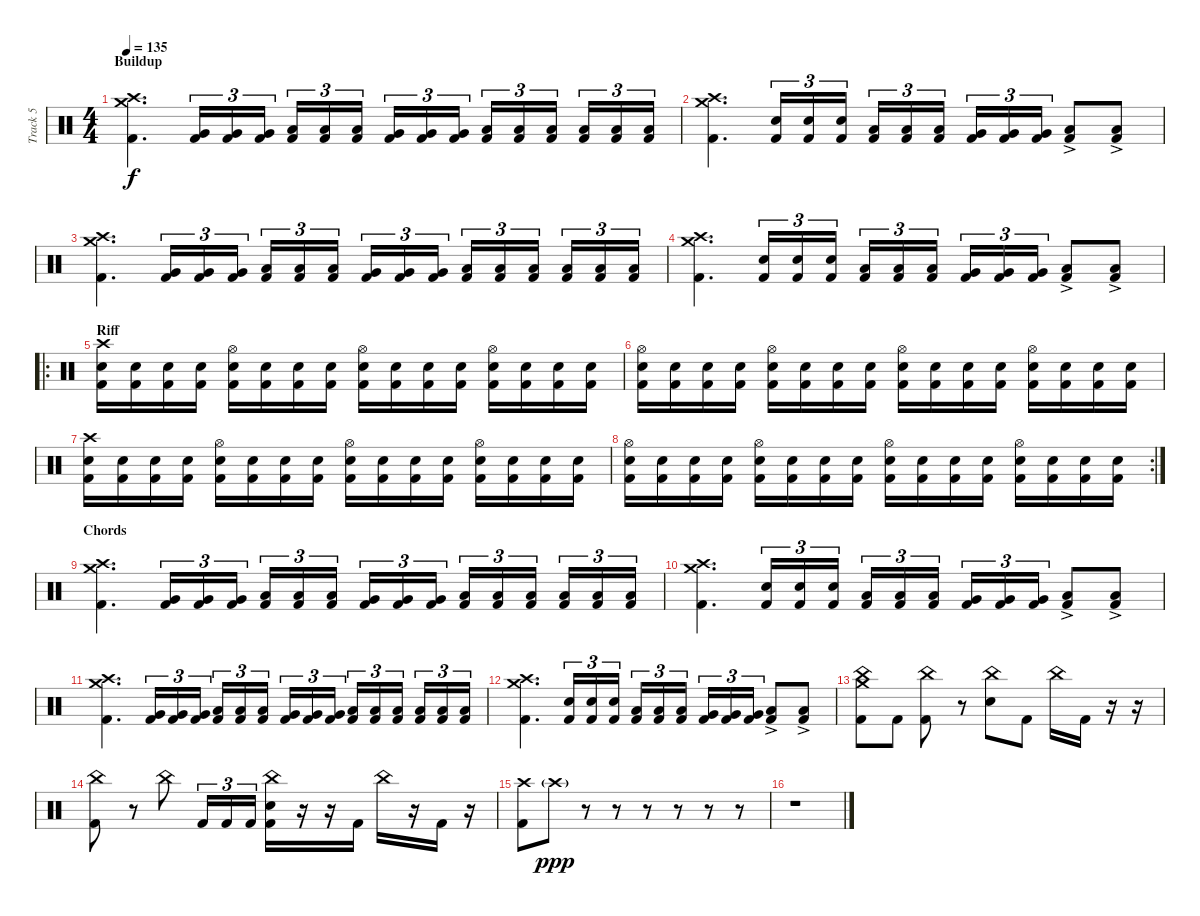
\track ("Track 5" "Track 5") {instrument percussion}
\staff {score}
\articulation defaults
\ts (4 4)
\section ("" "Buildup")
\tempo 135
\clef neutral
\ks c
("Crash medium (hit)" "Crash high (hit)" "Kick (hit) 2").4{d dy f} ("Very Low Tom (hit)" "Kick (hit) 2").16{tu (3 2)} ("Very Low Tom (hit)" "Kick (hit) 2").16{tu (3 2)} ("Very Low Tom (hit)" "Kick (hit) 2").16{tu (3 2)} ("Low Floor Tom (hit)" "Kick (hit) 2").16{tu (3 2)} ("Low Floor Tom (hit)" "Kick (hit) 2").16{tu (3 2)} ("Low Floor Tom (hit)" "Kick (hit) 2").16{tu (3 2)} ("Very Low Tom (hit)" "Kick (hit) 2").16{tu (3 2)} ("Very Low Tom (hit)" "Kick (hit) 2").16{tu (3 2)} ("Very Low Tom (hit)" "Kick (hit) 2").16{tu (3 2)} ("Low Floor Tom (hit)" "Kick (hit) 2").16{tu (3 2)} ("Low Floor Tom (hit)" "Kick (hit) 2").16{tu (3 2)} ("Low Floor Tom (hit)" "Kick (hit) 2").16{tu (3 2)} ("Low Floor Tom (hit)" "Kick (hit) 2").16{tu (3 2)} ("Low Floor Tom (hit)" "Kick (hit) 2").16{tu (3 2)} ("Low Floor Tom (hit)" "Kick (hit) 2").16{tu (3 2)} |
("Crash medium (hit)" "Crash high (hit)" "Kick (hit) 2").4{d} ("Electric Snare (hit)" "Kick (hit) 2").16{tu (3 2)} ("Electric Snare (hit)" "Kick (hit) 2").16{tu (3 2)} ("Electric Snare (hit)" "Kick (hit) 2").16{tu (3 2)} ("Low Floor Tom (hit)" "Kick (hit) 2").16{tu (3 2)} ("Low Floor Tom (hit)" "Kick (hit) 2").16{tu (3 2)} ("Low Floor Tom (hit)" "Kick (hit) 2").16{tu (3 2)} ("Very Low Tom (hit)" "Kick (hit) 2").16{tu (3 2)} ("Very Low Tom (hit)" "Kick (hit) 2").16{tu (3 2)} ("Very Low Tom (hit)" "Kick (hit) 2").16{tu (3 2)} ("Low Floor Tom (hit)"{ac} "Kick (hit) 2").8 ("Low Floor Tom (hit)"{ac} "Kick (hit) 2").8 |
("Crash medium (hit)" "Crash high (hit)" "Kick (hit) 2").4{d} ("Very Low Tom (hit)" "Kick (hit) 2").16{tu (3 2)} ("Very Low Tom (hit)" "Kick (hit) 2").16{tu (3 2)} ("Very Low Tom (hit)" "Kick (hit) 2").16{tu (3 2)} ("Low Floor Tom (hit)" "Kick (hit) 2").16{tu (3 2)} ("Low Floor Tom (hit)" "Kick (hit) 2").16{tu (3 2)} ("Low Floor Tom (hit)" "Kick (hit) 2").16{tu (3 2)} ("Very Low Tom (hit)" "Kick (hit) 2").16{tu (3 2)} ("Very Low Tom (hit)" "Kick (hit) 2").16{tu (3 2)} ("Very Low Tom (hit)" "Kick (hit) 2").16{tu (3 2)} ("Low Floor Tom (hit)" "Kick (hit) 2").16{tu (3 2)} ("Low Floor Tom (hit)" "Kick (hit) 2").16{tu (3 2)} ("Low Floor Tom (hit)" "Kick (hit) 2").16{tu (3 2)} ("Low Floor Tom (hit)" "Kick (hit) 2").16{tu (3 2)} ("Low Floor Tom (hit)" "Kick (hit) 2").16{tu (3 2)} ("Low Floor Tom (hit)" "Kick (hit) 2").16{tu (3 2)} |
("Crash medium (hit)" "Crash high (hit)" "Kick (hit) 2").4{d} ("Electric Snare (hit)" "Kick (hit) 2").16{tu (3 2)} ("Electric Snare (hit)" "Kick (hit) 2").16{tu (3 2)} ("Electric Snare (hit)" "Kick (hit) 2").16{tu (3 2)} ("Low Floor Tom (hit)" "Kick (hit) 2").16{tu (3 2)} ("Low Floor Tom (hit)" "Kick (hit) 2").16{tu (3 2)} ("Low Floor Tom (hit)" "Kick (hit) 2").16{tu (3 2)} ("Very Low Tom (hit)" "Kick (hit) 2").16{tu (3 2)} ("Very Low Tom (hit)" "Kick (hit) 2").16{tu (3 2)} ("Very Low Tom (hit)" "Kick (hit) 2").16{tu (3 2)} ("Low Floor Tom (hit)"{ac} "Kick (hit) 2").8 ("Low Floor Tom (hit)"{ac} "Kick (hit) 2").8 |
\ro
\section ("" "Riff")
("Electric Snare (hit)" "Crash high (hit)" "Kick (hit) 2").16 ("Electric Snare (hit)" "Kick (hit) 2").16 ("Electric Snare (hit)" "Kick (hit) 2").16 ("Electric Snare (hit)" "Kick (hit) 2").16 ("Electric Snare (hit)" "Hi-Hat (open)" "Kick (hit) 2").16 ("Electric Snare (hit)" "Kick (hit) 2").16 ("Electric Snare (hit)" "Kick (hit) 2").16 ("Electric Snare (hit)" "Kick (hit) 2").16 ("Electric Snare (hit)" "Hi-Hat (open)" "Kick (hit) 2").16 ("Electric Snare (hit)" "Kick (hit) 2").16 ("Electric Snare (hit)" "Kick (hit) 2").16 ("Electric Snare (hit)" "Kick (hit) 2").16 ("Electric Snare (hit)" "Hi-Hat (open)" "Kick (hit) 2").16 ("Electric Snare (hit)" "Kick (hit) 2").16 ("Electric Snare (hit)" "Kick (hit) 2").16 ("Electric Snare (hit)" "Kick (hit) 2").16 |
("Electric Snare (hit)" "Hi-Hat (open)" "Kick (hit) 2").16 ("Electric Snare (hit)" "Kick (hit) 2").16 ("Electric Snare (hit)" "Kick (hit) 2").16 ("Electric Snare (hit)" "Kick (hit) 2").16 ("Electric Snare (hit)" "Hi-Hat (open)" "Kick (hit) 2").16 ("Electric Snare (hit)" "Kick (hit) 2").16 ("Electric Snare (hit)" "Kick (hit) 2").16 ("Electric Snare (hit)" "Kick (hit) 2").16 ("Electric Snare (hit)" "Hi-Hat (open)" "Kick (hit) 2").16 ("Electric Snare (hit)" "Kick (hit) 2").16 ("Electric Snare (hit)" "Kick (hit) 2").16 ("Electric Snare (hit)" "Kick (hit) 2").16 ("Electric Snare (hit)" "Hi-Hat (open)" "Kick (hit) 2").16 ("Electric Snare (hit)" "Kick (hit) 2").16 ("Electric Snare (hit)" "Kick (hit) 2").16 ("Electric Snare (hit)" "Kick (hit) 2").16 |
("Electric Snare (hit)" "Crash high (hit)" "Kick (hit) 2").16 ("Electric Snare (hit)" "Kick (hit) 2").16 ("Electric Snare (hit)" "Kick (hit) 2").16 ("Electric Snare (hit)" "Kick (hit) 2").16 ("Electric Snare (hit)" "Hi-Hat (open)" "Kick (hit) 2").16 ("Electric Snare (hit)" "Kick (hit) 2").16 ("Electric Snare (hit)" "Kick (hit) 2").16 ("Electric Snare (hit)" "Kick (hit) 2").16 ("Electric Snare (hit)" "Hi-Hat (open)" "Kick (hit) 2").16 ("Electric Snare (hit)" "Kick (hit) 2").16 ("Electric Snare (hit)" "Kick (hit) 2").16 ("Electric Snare (hit)" "Kick (hit) 2").16 ("Electric Snare (hit)" "Hi-Hat (open)" "Kick (hit) 2").16 ("Electric Snare (hit)" "Kick (hit) 2").16 ("Electric Snare (hit)" "Kick (hit) 2").16 ("Electric Snare (hit)" "Kick (hit) 2").16 |
\rc 2
("Electric Snare (hit)" "Hi-Hat (open)" "Kick (hit) 2").16 ("Electric Snare (hit)" "Kick (hit) 2").16 ("Electric Snare (hit)" "Kick (hit) 2").16 ("Electric Snare (hit)" "Kick (hit) 2").16 ("Electric Snare (hit)" "Hi-Hat (open)" "Kick (hit) 2").16 ("Electric Snare (hit)" "Kick (hit) 2").16 ("Electric Snare (hit)" "Kick (hit) 2").16 ("Electric Snare (hit)" "Kick (hit) 2").16 ("Electric Snare (hit)" "Hi-Hat (open)" "Kick (hit) 2").16 ("Electric Snare (hit)" "Kick (hit) 2").16 ("Electric Snare (hit)" "Kick (hit) 2").16 ("Electric Snare (hit)" "Kick (hit) 2").16 ("Electric Snare (hit)" "Hi-Hat (open)" "Kick (hit) 2").16 ("Electric Snare (hit)" "Kick (hit) 2").16 ("Electric Snare (hit)" "Kick (hit) 2").16 ("Electric Snare (hit)" "Kick (hit) 2").16 |
\section ("" "Chords")
("Crash medium (hit)" "Crash high (hit)" "Kick (hit) 2").4{d} ("Very Low Tom (hit)" "Kick (hit) 2").16{tu (3 2)} ("Very Low Tom (hit)" "Kick (hit) 2").16{tu (3 2)} ("Very Low Tom (hit)" "Kick (hit) 2").16{tu (3 2)} ("Low Floor Tom (hit)" "Kick (hit) 2").16{tu (3 2)} ("Low Floor Tom (hit)" "Kick (hit) 2").16{tu (3 2)} ("Low Floor Tom (hit)" "Kick (hit) 2").16{tu (3 2)} ("Very Low Tom (hit)" "Kick (hit) 2").16{tu (3 2)} ("Very Low Tom (hit)" "Kick (hit) 2").16{tu (3 2)} ("Very Low Tom (hit)" "Kick (hit) 2").16{tu (3 2)} ("Low Floor Tom (hit)" "Kick (hit) 2").16{tu (3 2)} ("Low Floor Tom (hit)" "Kick (hit) 2").16{tu (3 2)} ("Low Floor Tom (hit)" "Kick (hit) 2").16{tu (3 2)} ("Low Floor Tom (hit)" "Kick (hit) 2").16{tu (3 2)} ("Low Floor Tom (hit)" "Kick (hit) 2").16{tu (3 2)} ("Low Floor Tom (hit)" "Kick (hit) 2").16{tu (3 2)} |
("Crash medium (hit)" "Crash high (hit)" "Kick (hit) 2").4{d} ("Electric Snare (hit)" "Kick (hit) 2").16{tu (3 2)} ("Electric Snare (hit)" "Kick (hit) 2").16{tu (3 2)} ("Electric Snare (hit)" "Kick (hit) 2").16{tu (3 2)} ("Low Floor Tom (hit)" "Kick (hit) 2").16{tu (3 2)} ("Low Floor Tom (hit)" "Kick (hit) 2").16{tu (3 2)} ("Low Floor Tom (hit)" "Kick (hit) 2").16{tu (3 2)} ("Very Low Tom (hit)" "Kick (hit) 2").16{tu (3 2)} ("Very Low Tom (hit)" "Kick (hit) 2").16{tu (3 2)} ("Very Low Tom (hit)" "Kick (hit) 2").16{tu (3 2)} ("Low Floor Tom (hit)"{ac} "Kick (hit) 2").8 ("Low Floor Tom (hit)"{ac} "Kick (hit) 2").8 |
("Crash medium (hit)" "Crash high (hit)" "Kick (hit) 2").4{d} ("Very Low Tom (hit)" "Kick (hit) 2").16{tu (3 2)} ("Very Low Tom (hit)" "Kick (hit) 2").16{tu (3 2)} ("Very Low Tom (hit)" "Kick (hit) 2").16{tu (3 2)} ("Low Floor Tom (hit)" "Kick (hit) 2").16{tu (3 2)} ("Low Floor Tom (hit)" "Kick (hit) 2").16{tu (3 2)} ("Low Floor Tom (hit)" "Kick (hit) 2").16{tu (3 2)} ("Very Low Tom (hit)" "Kick (hit) 2").16{tu (3 2)} ("Very Low Tom (hit)" "Kick (hit) 2").16{tu (3 2)} ("Very Low Tom (hit)" "Kick (hit) 2").16{tu (3 2)} ("Low Floor Tom (hit)" "Kick (hit) 2").16{tu (3 2)} ("Low Floor Tom (hit)" "Kick (hit) 2").16{tu (3 2)} ("Low Floor Tom (hit)" "Kick (hit) 2").16{tu (3 2)} ("Low Floor Tom (hit)" "Kick (hit) 2").16{tu (3 2)} ("Low Floor Tom (hit)" "Kick (hit) 2").16{tu (3 2)} ("Low Floor Tom (hit)" "Kick (hit) 2").16{tu (3 2)} |
("Crash medium (hit)" "Crash high (hit)" "Kick (hit) 2").4{d} ("Electric Snare (hit)" "Kick (hit) 2").16{tu (3 2)} ("Electric Snare (hit)" "Kick (hit) 2").16{tu (3 2)} ("Electric Snare (hit)" "Kick (hit) 2").16{tu (3 2)} ("Low Floor Tom (hit)" "Kick (hit) 2").16{tu (3 2)} ("Low Floor Tom (hit)" "Kick (hit) 2").16{tu (3 2)} ("Low Floor Tom (hit)" "Kick (hit) 2").16{tu (3 2)} ("Very Low Tom (hit)" "Kick (hit) 2").16{tu (3 2)} ("Very Low Tom (hit)" "Kick (hit) 2").16{tu (3 2)} ("Very Low Tom (hit)" "Kick (hit) 2").16{tu (3 2)} ("Low Floor Tom (hit)"{ac} "Kick (hit) 2").8 ("Low Floor Tom (hit)"{ac} "Kick (hit) 2").8 |
("Crash medium (hit)" "China (hit)" "Kick (hit) 2").8 "Kick (hit) 2".8 ("China (hit)" "Kick (hit) 2").8 r.8 ("Electric Snare (hit)" "China (hit)").8 "Kick (hit) 2".8 "China (hit)".16 "Kick (hit) 2".16 r.16 r.16 |
("China (hit)" "Kick (hit) 2").8 r.8 "China (hit)".8 "Kick (hit) 2".16{tu (3 2)} "Kick (hit) 2".16{tu (3 2)} "Kick (hit) 2".16{tu (3 2)} ("Electric Snare (hit)" "China (hit)" "Kick (hit) 2").16 r.16 r.16 "Kick (hit) 2".16 "China (hit)".16 r.16 "Kick (hit) 2".16 r.16 |
("Crash high (hit)" "Kick (hit) 2").8 "Crash high (hit)"{g}.8{dy ppp} r.8 r.8 r.8 r.8 r.8 r.8 |
r.1
